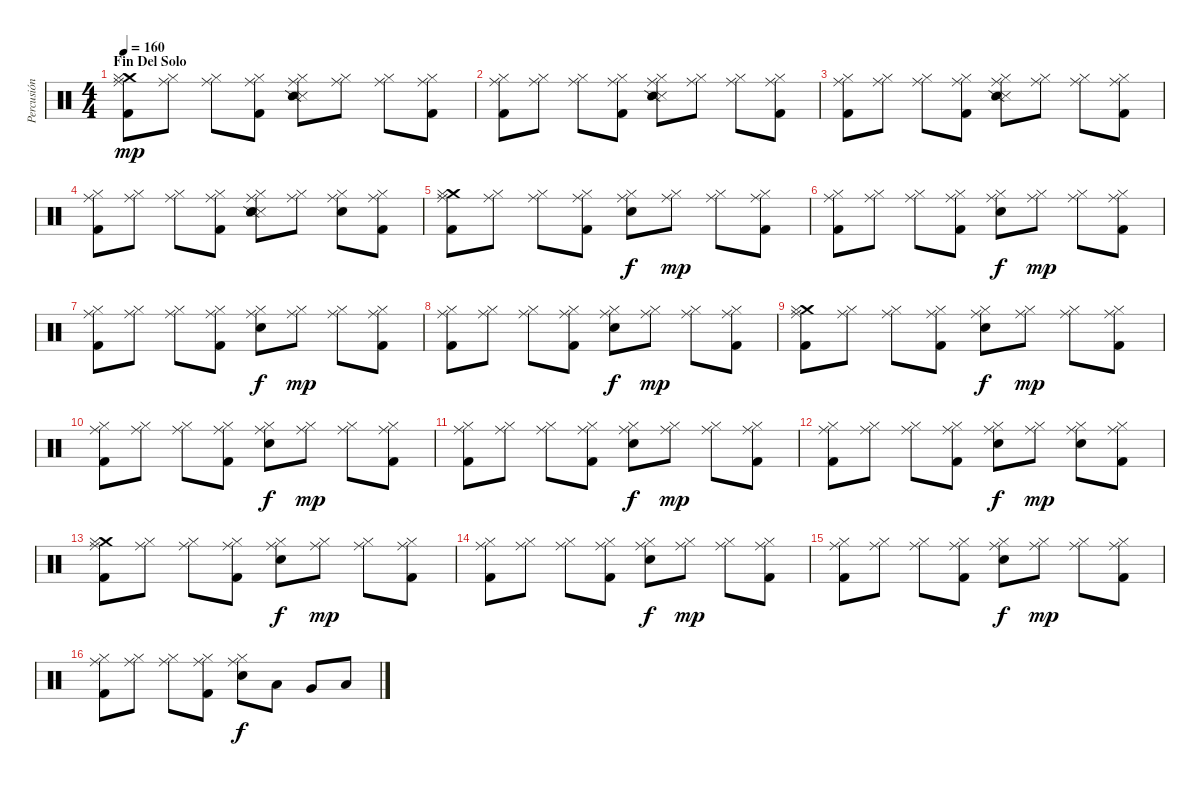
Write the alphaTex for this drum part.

\track ("Percusión" "Percusión") {instrument percussion}
\staff {score}
\articulation defaults
\ts (4 4)
\section ("" "Fin Del Solo")
\tempo 160
\clef neutral
\ks c
("Crash medium (hit)" "Ride (middle)" "Hi-Hat (closed)" "Kick (hit) 2").8{dy mp} ("Ride (middle)" "Hi-Hat (closed)").8 ("Ride (middle)" "Hi-Hat (closed)").8 ("Ride (middle)" "Hi-Hat (closed)" "Kick (hit) 2").8 ("Metronome (hit)" "Snare (side stick) 2" "Hi-Hat (closed)" "Ride (middle)").8 ("Ride (middle)" "Hi-Hat (closed)").8 ("Ride (middle)" "Hi-Hat (closed)").8 ("Ride (middle)" "Hi-Hat (closed)" "Kick (hit) 2").8 |
("Ride (middle)" "Hi-Hat (closed)" "Kick (hit) 2").8 ("Ride (middle)" "Hi-Hat (closed)").8 ("Ride (middle)" "Hi-Hat (closed)").8 ("Ride (middle)" "Hi-Hat (closed)" "Kick (hit) 2").8 ("Metronome (hit)" "Snare (side stick) 2" "Hi-Hat (closed)" "Ride (middle)").8 ("Ride (middle)" "Hi-Hat (closed)").8 ("Ride (middle)" "Hi-Hat (closed)").8 ("Ride (middle)" "Hi-Hat (closed)" "Kick (hit) 2").8 |
("Ride (middle)" "Hi-Hat (closed)" "Kick (hit) 2").8 ("Ride (middle)" "Hi-Hat (closed)").8 ("Ride (middle)" "Hi-Hat (closed)").8 ("Ride (middle)" "Hi-Hat (closed)" "Kick (hit) 2").8 ("Metronome (hit)" "Snare (side stick) 2" "Hi-Hat (closed)" "Ride (middle)").8 ("Ride (middle)" "Hi-Hat (closed)").8 ("Ride (middle)" "Hi-Hat (closed)").8 ("Ride (middle)" "Hi-Hat (closed)" "Kick (hit) 2").8 |
("Ride (middle)" "Hi-Hat (closed)" "Kick (hit) 2").8 ("Ride (middle)" "Hi-Hat (closed)").8 ("Ride (middle)" "Hi-Hat (closed)").8 ("Ride (middle)" "Hi-Hat (closed)" "Kick (hit) 2").8 ("Metronome (hit)" "Snare (side stick) 2" "Hi-Hat (closed)" "Ride (middle)" "Snare (hit) 2").8 ("Ride (middle)" "Hi-Hat (closed)").8 ("Ride (middle)" "Hi-Hat (closed)" "Snare (hit) 2").8 ("Ride (middle)" "Hi-Hat (closed)" "Kick (hit) 2").8 |
("Crash medium (hit)" "Ride (middle)" "Hi-Hat (closed)" "Kick (hit) 2").8 ("Ride (middle)" "Hi-Hat (closed)").8 ("Ride (middle)" "Hi-Hat (closed)").8 ("Ride (middle)" "Hi-Hat (closed)" "Kick (hit) 2").8 ("Snare (hit) 2" "Hi-Hat (closed)" "Ride (middle)").8{dy f} ("Ride (middle)" "Hi-Hat (closed)").8{dy mp} ("Ride (middle)" "Hi-Hat (closed)").8 ("Ride (middle)" "Hi-Hat (closed)" "Kick (hit) 2").8 |
("Ride (middle)" "Hi-Hat (closed)" "Kick (hit) 2").8 ("Ride (middle)" "Hi-Hat (closed)").8 ("Ride (middle)" "Hi-Hat (closed)").8 ("Ride (middle)" "Hi-Hat (closed)" "Kick (hit) 2").8 ("Snare (hit) 2" "Hi-Hat (closed)" "Ride (middle)").8{dy f} ("Ride (middle)" "Hi-Hat (closed)").8{dy mp} ("Ride (middle)" "Hi-Hat (closed)").8 ("Ride (middle)" "Hi-Hat (closed)" "Kick (hit) 2").8 |
("Ride (middle)" "Hi-Hat (closed)" "Kick (hit) 2").8 ("Ride (middle)" "Hi-Hat (closed)").8 ("Ride (middle)" "Hi-Hat (closed)").8 ("Ride (middle)" "Hi-Hat (closed)" "Kick (hit) 2").8 ("Snare (hit) 2" "Hi-Hat (closed)" "Ride (middle)").8{dy f} ("Ride (middle)" "Hi-Hat (closed)").8{dy mp} ("Ride (middle)" "Hi-Hat (closed)").8 ("Ride (middle)" "Hi-Hat (closed)" "Kick (hit) 2").8 |
("Ride (middle)" "Hi-Hat (closed)" "Kick (hit) 2").8 ("Ride (middle)" "Hi-Hat (closed)").8 ("Ride (middle)" "Hi-Hat (closed)").8 ("Ride (middle)" "Hi-Hat (closed)" "Kick (hit) 2").8 ("Snare (hit) 2" "Hi-Hat (closed)" "Ride (middle)").8{dy f} ("Ride (middle)" "Hi-Hat (closed)").8{dy mp} ("Ride (middle)" "Hi-Hat (closed)").8 ("Ride (middle)" "Hi-Hat (closed)" "Kick (hit) 2").8 |
("Crash medium (hit)" "Ride (middle)" "Hi-Hat (closed)" "Kick (hit) 2").8 ("Ride (middle)" "Hi-Hat (closed)").8 ("Ride (middle)" "Hi-Hat (closed)").8 ("Ride (middle)" "Hi-Hat (closed)" "Kick (hit) 2").8 ("Snare (hit) 2" "Hi-Hat (closed)" "Ride (middle)").8{dy f} ("Ride (middle)" "Hi-Hat (closed)").8{dy mp} ("Ride (middle)" "Hi-Hat (closed)").8 ("Ride (middle)" "Hi-Hat (closed)" "Kick (hit) 2").8 |
("Ride (middle)" "Hi-Hat (closed)" "Kick (hit) 2").8 ("Ride (middle)" "Hi-Hat (closed)").8 ("Ride (middle)" "Hi-Hat (closed)").8 ("Ride (middle)" "Hi-Hat (closed)" "Kick (hit) 2").8 ("Snare (hit) 2" "Hi-Hat (closed)" "Ride (middle)").8{dy f} ("Ride (middle)" "Hi-Hat (closed)").8{dy mp} ("Ride (middle)" "Hi-Hat (closed)").8 ("Ride (middle)" "Hi-Hat (closed)" "Kick (hit) 2").8 |
("Ride (middle)" "Hi-Hat (closed)" "Kick (hit) 2").8 ("Ride (middle)" "Hi-Hat (closed)").8 ("Ride (middle)" "Hi-Hat (closed)").8 ("Ride (middle)" "Hi-Hat (closed)" "Kick (hit) 2").8 ("Snare (hit) 2" "Hi-Hat (closed)" "Ride (middle)").8{dy f} ("Ride (middle)" "Hi-Hat (closed)").8{dy mp} ("Ride (middle)" "Hi-Hat (closed)").8 ("Ride (middle)" "Hi-Hat (closed)" "Kick (hit) 2").8 |
("Ride (middle)" "Hi-Hat (closed)" "Kick (hit) 2").8 ("Ride (middle)" "Hi-Hat (closed)").8 ("Ride (middle)" "Hi-Hat (closed)").8 ("Ride (middle)" "Hi-Hat (closed)" "Kick (hit) 2").8 ("Snare (hit) 2" "Hi-Hat (closed)" "Ride (middle)").8{dy f} ("Ride (middle)" "Hi-Hat (closed)").8{dy mp} ("Ride (middle)" "Hi-Hat (closed)" "Snare (hit) 2").8 ("Ride (middle)" "Hi-Hat (closed)" "Kick (hit) 2").8 |
("Crash medium (hit)" "Ride (middle)" "Hi-Hat (closed)" "Kick (hit) 2").8 ("Ride (middle)" "Hi-Hat (closed)").8 ("Ride (middle)" "Hi-Hat (closed)").8 ("Ride (middle)" "Hi-Hat (closed)" "Kick (hit) 2").8 ("Snare (hit) 2" "Hi-Hat (closed)" "Ride (middle)").8{dy f} ("Ride (middle)" "Hi-Hat (closed)").8{dy mp} ("Ride (middle)" "Hi-Hat (closed)").8 ("Ride (middle)" "Hi-Hat (closed)" "Kick (hit) 2").8 |
("Ride (middle)" "Hi-Hat (closed)" "Kick (hit) 2").8 ("Ride (middle)" "Hi-Hat (closed)").8 ("Ride (middle)" "Hi-Hat (closed)").8 ("Ride (middle)" "Hi-Hat (closed)" "Kick (hit) 2").8 ("Snare (hit) 2" "Hi-Hat (closed)" "Ride (middle)").8{dy f} ("Ride (middle)" "Hi-Hat (closed)").8{dy mp} ("Ride (middle)" "Hi-Hat (closed)").8 ("Ride (middle)" "Hi-Hat (closed)" "Kick (hit) 2").8 |
("Ride (middle)" "Hi-Hat (closed)" "Kick (hit) 2").8 ("Ride (middle)" "Hi-Hat (closed)").8 ("Ride (middle)" "Hi-Hat (closed)").8 ("Ride (middle)" "Hi-Hat (closed)" "Kick (hit) 2").8 ("Snare (hit) 2" "Hi-Hat (closed)" "Ride (middle)").8{dy f} ("Ride (middle)" "Hi-Hat (closed)").8{dy mp} ("Ride (middle)" "Hi-Hat (closed)").8 ("Ride (middle)" "Hi-Hat (closed)" "Kick (hit) 2").8 |
("Ride (middle)" "Hi-Hat (closed)" "Kick (hit) 2").8 ("Ride (middle)" "Hi-Hat (closed)").8 ("Ride (middle)" "Hi-Hat (closed)").8 ("Ride (middle)" "Hi-Hat (closed)" "Kick (hit) 2").8 ("Snare (hit) 2" "Hi-Hat (closed)" "Ride (middle)").8{dy f} "Low Tom (hit)".8 "Very Low Tom (hit)".8 "Low Floor Tom (hit)".8
